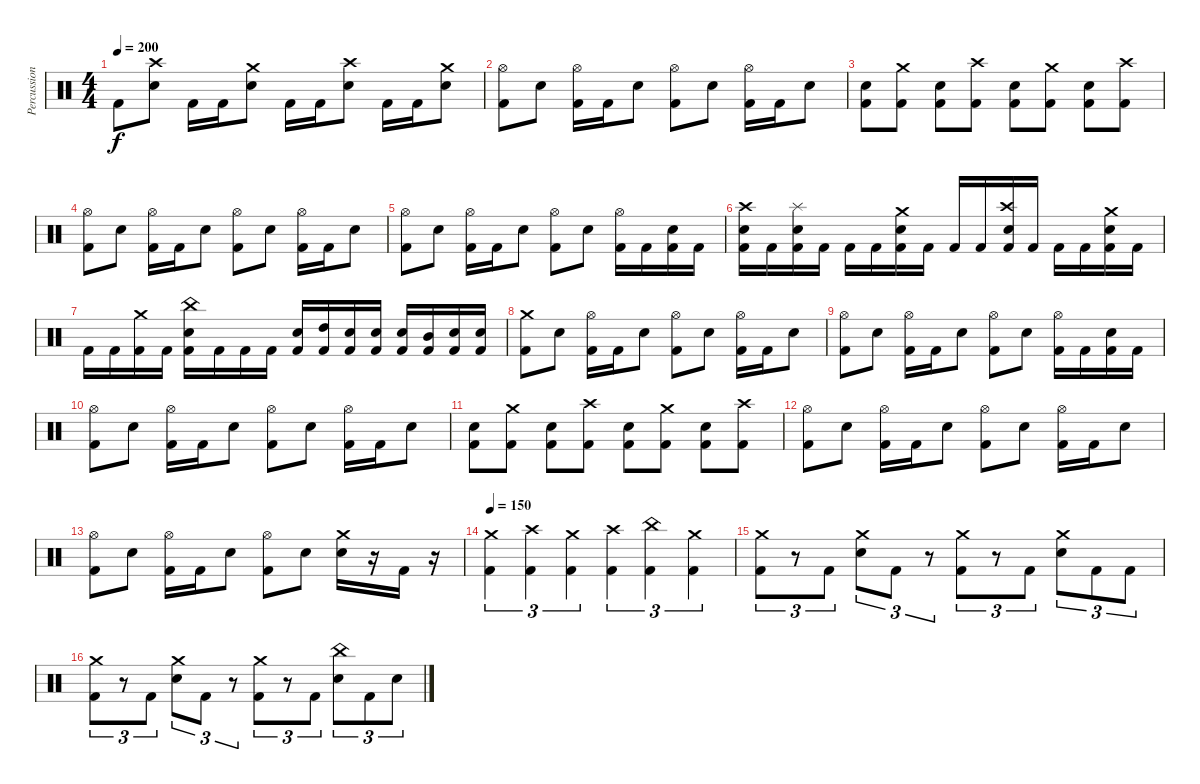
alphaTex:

\track ("Percussion" "Percussion") {instrument percussion}
\staff {score}
\articulation defaults
\ts (4 4)
\tempo 200
\clef neutral
\ks c "Kick (hit) 2".8{dy f}
("Crash high (hit)" "Electric Snare (hit)").8 "Kick (hit) 2".16 "Kick (hit) 2".16 ("Crash medium (hit)" "Electric Snare (hit)").8 "Kick (hit) 2".16 "Kick (hit) 2".16 ("Crash high (hit)" "Electric Snare (hit)").8 "Kick (hit) 2".16 "Kick (hit) 2".16 ("Crash medium (hit)" "Electric Snare (hit)").8 |
("Hi-Hat (open)" "Kick (hit) 2").8 "Electric Snare (hit)".8 ("Hi-Hat (open)" "Kick (hit) 2").16 "Kick (hit) 2".16 "Electric Snare (hit)".8 ("Hi-Hat (open)" "Kick (hit) 2").8 "Electric Snare (hit)".8 ("Hi-Hat (open)" "Kick (hit) 2").16 "Kick (hit) 2".16 "Electric Snare (hit)".8 |
("Electric Snare (hit)" "Kick (hit) 2").8 ("Crash medium (hit)" "Kick (hit) 2").8 ("Electric Snare (hit)" "Kick (hit) 2").8 ("Crash high (hit)" "Kick (hit) 2").8 ("Electric Snare (hit)" "Kick (hit) 2").8 ("Crash medium (hit)" "Kick (hit) 2").8 ("Electric Snare (hit)" "Kick (hit) 2").8 ("Crash high (hit)" "Kick (hit) 2").8 |
("Hi-Hat (open)" "Kick (hit) 2").8 "Electric Snare (hit)".8 ("Hi-Hat (open)" "Kick (hit) 2").16 "Kick (hit) 2".16 "Electric Snare (hit)".8 ("Hi-Hat (open)" "Kick (hit) 2").8 "Electric Snare (hit)".8 ("Hi-Hat (open)" "Kick (hit) 2").16 "Kick (hit) 2".16 "Electric Snare (hit)".8 |
("Hi-Hat (open)" "Kick (hit) 2").8 "Electric Snare (hit)".8 ("Hi-Hat (open)" "Kick (hit) 2").16 "Kick (hit) 2".16 "Electric Snare (hit)".8 ("Hi-Hat (open)" "Kick (hit) 2").8 "Electric Snare (hit)".8 ("Hi-Hat (open)" "Kick (hit) 2").16 "Kick (hit) 2".16 ("Electric Snare (hit)" "Kick (hit) 2").16 "Kick (hit) 2".16 |
("Crash high (hit)" "Electric Snare (hit)" "Kick (hit) 2").16 "Kick (hit) 2".16 ("Splash (hit)" "Electric Snare (hit)" "Kick (hit) 2").16 "Kick (hit) 2".16 "Kick (hit) 2".16 "Kick (hit) 2".16 ("Crash medium (hit)" "Electric Snare (hit)" "Kick (hit) 2").16 "Kick (hit) 2".16 "Kick (hit) 2".16 "Kick (hit) 2".16 ("Crash high (hit)" "Electric Snare (hit)" "Kick (hit) 2").16 "Kick (hit) 2".16 "Kick (hit) 2".16 "Kick (hit) 2".16 ("Crash medium (hit)" "Electric Snare (hit)" "Kick (hit) 2").16 "Kick (hit) 2".16 |
"Kick (hit) 2".16 "Kick (hit) 2".16 ("Crash medium (hit)" "Kick (hit) 2").16 "Kick (hit) 2".16 ("China (hit)" "Electric Snare (hit)" "Kick (hit) 2").16 "Kick (hit) 2".16 "Kick (hit) 2".16 "Kick (hit) 2".16 ("Electric Snare (hit)" "Kick (hit) 2").16 ("High Tom (hit)" "Kick (hit) 2").16 ("Electric Snare (hit)" "Kick (hit) 2").16 ("Electric Snare (hit)" "Kick (hit) 2").16 ("Electric Snare (hit)" "Kick (hit) 2").16 ("Mid Tom (hit)" "Kick (hit) 2").16 ("Electric Snare (hit)" "Kick (hit) 2").16 ("Electric Snare (hit)" "Kick (hit) 2").16 |
("Crash medium (hit)" "Kick (hit) 2").8 "Electric Snare (hit)".8 ("Hi-Hat (open)" "Kick (hit) 2").16 "Kick (hit) 2".16 "Electric Snare (hit)".8 ("Hi-Hat (open)" "Kick (hit) 2").8 "Electric Snare (hit)".8 ("Hi-Hat (open)" "Kick (hit) 2").16 "Kick (hit) 2".16 "Electric Snare (hit)".8 |
("Hi-Hat (open)" "Kick (hit) 2").8 "Electric Snare (hit)".8 ("Hi-Hat (open)" "Kick (hit) 2").16 "Kick (hit) 2".16 "Electric Snare (hit)".8 ("Hi-Hat (open)" "Kick (hit) 2").8 "Electric Snare (hit)".8 ("Hi-Hat (open)" "Kick (hit) 2").16 "Kick (hit) 2".16 ("Electric Snare (hit)" "Kick (hit) 2").16 "Kick (hit) 2".16 |
("Hi-Hat (open)" "Kick (hit) 2").8 "Electric Snare (hit)".8 ("Hi-Hat (open)" "Kick (hit) 2").16 "Kick (hit) 2".16 "Electric Snare (hit)".8 ("Hi-Hat (open)" "Kick (hit) 2").8 "Electric Snare (hit)".8 ("Hi-Hat (open)" "Kick (hit) 2").16 "Kick (hit) 2".16 "Electric Snare (hit)".8 |
("Electric Snare (hit)" "Kick (hit) 2").8 ("Crash medium (hit)" "Kick (hit) 2").8 ("Electric Snare (hit)" "Kick (hit) 2").8 ("Crash high (hit)" "Kick (hit) 2").8 ("Electric Snare (hit)" "Kick (hit) 2").8 ("Crash medium (hit)" "Kick (hit) 2").8 ("Electric Snare (hit)" "Kick (hit) 2").8 ("Crash high (hit)" "Kick (hit) 2").8 |
("Hi-Hat (open)" "Kick (hit) 2").8 "Electric Snare (hit)".8 ("Hi-Hat (open)" "Kick (hit) 2").16 "Kick (hit) 2".16 "Electric Snare (hit)".8 ("Hi-Hat (open)" "Kick (hit) 2").8 "Electric Snare (hit)".8 ("Hi-Hat (open)" "Kick (hit) 2").16 "Kick (hit) 2".16 "Electric Snare (hit)".8 |
("Hi-Hat (open)" "Kick (hit) 2").8 "Electric Snare (hit)".8 ("Hi-Hat (open)" "Kick (hit) 2").16 "Kick (hit) 2".16 "Electric Snare (hit)".8 ("Hi-Hat (open)" "Kick (hit) 2").8 "Electric Snare (hit)".8 ("Crash medium (hit)" "Electric Snare (hit)").16 r.16 "Kick (hit) 2".16 r.16 |
\tempo 150
("Crash medium (hit)" "Kick (hit) 2").4{tu (3 2)} ("Crash high (hit)" "Kick (hit) 2").4{tu (3 2)} ("Crash medium (hit)" "Kick (hit) 2").4{tu (3 2)} ("Crash high (hit)" "Kick (hit) 2").4{tu (3 2)} ("China (hit)" "Kick (hit) 2").4{tu (3 2)} ("Crash medium (hit)" "Kick (hit) 2").4{tu (3 2)} |
("Crash medium (hit)" "Kick (hit) 2").8{tu (3 2)} r.8{tu (3 2)} "Kick (hit) 2".8{tu (3 2)} ("Crash medium (hit)" "Electric Snare (hit)").8{tu (3 2)} "Kick (hit) 2".8{tu (3 2)} r.8{tu (3 2)} ("Crash medium (hit)" "Kick (hit) 2").8{tu (3 2)} r.8{tu (3 2)} "Kick (hit) 2".8{tu (3 2)} ("Crash medium (hit)" "Electric Snare (hit)").8{tu (3 2)} "Kick (hit) 2".8{tu (3 2)} "Kick (hit) 2".8{tu (3 2)} |
("Crash medium (hit)" "Kick (hit) 2").8{tu (3 2)} r.8{tu (3 2)} "Kick (hit) 2".8{tu (3 2)} ("Crash medium (hit)" "Electric Snare (hit)").8{tu (3 2)} "Kick (hit) 2".8{tu (3 2)} r.8{tu (3 2)} ("Crash medium (hit)" "Kick (hit) 2").8{tu (3 2)} r.8{tu (3 2)} "Kick (hit) 2".8{tu (3 2)} ("China (hit)" "Electric Snare (hit)").8{tu (3 2)} "Kick (hit) 2".8{tu (3 2)} "Electric Snare (hit)".8{tu (3 2)}
